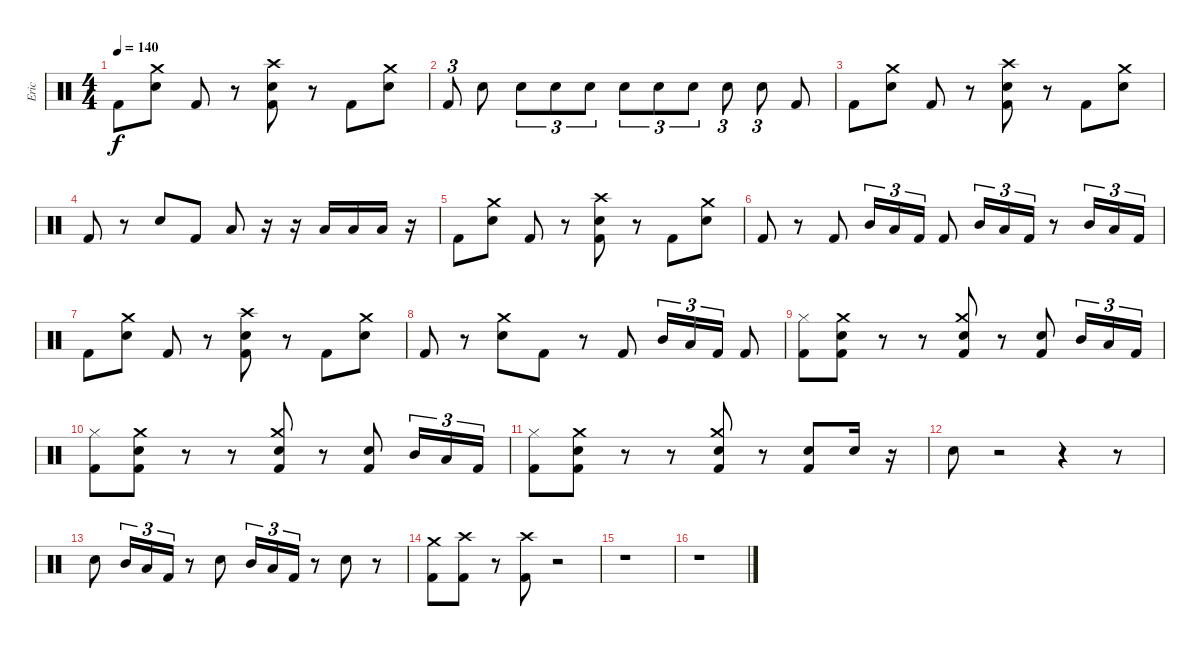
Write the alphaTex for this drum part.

\track ("Eric" "Eric") {instrument percussion}
\staff {score}
\articulation defaults
\ts (4 4)
\tempo 140
\clef neutral
\ks c "Kick (hit) 2".8{dy f}
("Crash medium (hit)" "Electric Snare (hit)").8 "Kick (hit) 2".8 r.8 ("Crash high (hit)" "Electric Snare (hit)" "Kick (hit) 2").8 r.8 "Kick (hit) 2".8 ("Crash medium (hit)" "Electric Snare (hit)").8 |
"Kick (hit) 2".8{tu (3 2)} "Electric Snare (hit)".8 "Electric Snare (hit)".8{tu (3 2)} "Electric Snare (hit)".8{tu (3 2)} "Electric Snare (hit)".8{tu (3 2)} "Electric Snare (hit)".8{tu (3 2)} "Electric Snare (hit)".8{tu (3 2)} "Electric Snare (hit)".8{tu (3 2)} "Electric Snare (hit)".8{tu (3 2)} "Electric Snare (hit)".8{tu (3 2)} "Kick (hit) 2".8 |
"Kick (hit) 2".8 ("Crash medium (hit)" "Electric Snare (hit)").8 "Kick (hit) 2".8 r.8 ("Crash high (hit)" "Electric Snare (hit)" "Kick (hit) 2").8 r.8 "Kick (hit) 2".8 ("Crash medium (hit)" "Electric Snare (hit)").8 |
"Kick (hit) 2".8 r.8 "Electric Snare (hit)".8 "Kick (hit) 2".8 "Low Tom (hit)".8 r.16 r.16 "Low Tom (hit)".16 "Low Tom (hit)".16 "Low Tom (hit)".16 r.16 |
"Kick (hit) 2".8 ("Crash medium (hit)" "Electric Snare (hit)").8 "Kick (hit) 2".8 r.8 ("Crash high (hit)" "Electric Snare (hit)" "Kick (hit) 2").8 r.8 "Kick (hit) 2".8 ("Crash medium (hit)" "Electric Snare (hit)").8 |
"Kick (hit) 2".8 r.8 "Kick (hit) 2".8 "Mid Tom (hit)".16{tu (3 2)} "Low Tom (hit)".16{tu (3 2)} "Kick (hit) 2".16{tu (3 2)} "Kick (hit) 2".8 "Mid Tom (hit)".16{tu (3 2)} "Low Tom (hit)".16{tu (3 2)} "Kick (hit) 2".16{tu (3 2)} r.8 "Mid Tom (hit)".16{tu (3 2)} "Low Tom (hit)".16{tu (3 2)} "Kick (hit) 2".16{tu (3 2)} |
"Kick (hit) 2".8 ("Crash medium (hit)" "Electric Snare (hit)").8 "Kick (hit) 2".8 r.8 ("Crash high (hit)" "Electric Snare (hit)" "Kick (hit) 2").8 r.8 "Kick (hit) 2".8 ("Crash medium (hit)" "Electric Snare (hit)").8 |
"Kick (hit) 2".8 r.8 ("Crash medium (hit)" "Electric Snare (hit)").8 "Kick (hit) 2".8 r.8 "Kick (hit) 2".8 "Mid Tom (hit)".16{tu (3 2)} "Low Tom (hit)".16{tu (3 2)} "Kick (hit) 2".16{tu (3 2)} "Kick (hit) 2".8 |
("Hi-Hat (closed)" "Kick (hit) 2").8 ("Crash medium (hit)" "Electric Snare (hit)" "Kick (hit) 2").8 r.8 r.8 ("Crash medium (hit)" "Electric Snare (hit)" "Kick (hit) 2").8 r.8 ("Electric Snare (hit)" "Kick (hit) 2").8 "Mid Tom (hit)".16{tu (3 2)} "Low Tom (hit)".16{tu (3 2)} "Kick (hit) 2".16{tu (3 2)} |
("Hi-Hat (closed)" "Kick (hit) 2").8 ("Crash medium (hit)" "Electric Snare (hit)" "Kick (hit) 2").8 r.8 r.8 ("Crash medium (hit)" "Electric Snare (hit)" "Kick (hit) 2").8 r.8 ("Electric Snare (hit)" "Kick (hit) 2").8 "Mid Tom (hit)".16{tu (3 2)} "Low Tom (hit)".16{tu (3 2)} "Kick (hit) 2".16{tu (3 2)} |
("Hi-Hat (closed)" "Kick (hit) 2").8 ("Crash medium (hit)" "Electric Snare (hit)" "Kick (hit) 2").8 r.8 r.8 ("Crash medium (hit)" "Electric Snare (hit)" "Kick (hit) 2").8 r.8 ("Electric Snare (hit)" "Kick (hit) 2").8 "Electric Snare (hit)".16 r.16 |
"Electric Snare (hit)".8 r.2 r.4 r.8 |
"Electric Snare (hit)".8 "Mid Tom (hit)".16{tu (3 2)} "Low Tom (hit)".16{tu (3 2)} "Kick (hit) 2".16{tu (3 2)} r.8 "Electric Snare (hit)".8 "Mid Tom (hit)".16{tu (3 2)} "Low Tom (hit)".16{tu (3 2)} "Kick (hit) 2".16{tu (3 2)} r.8 "Electric Snare (hit)".8 r.8 |
("Crash medium (hit)" "Kick (hit) 2").8 ("Crash high (hit)" "Kick (hit) 2").8 r.8 ("Crash high (hit)" "Kick (hit) 2").8 r.2 |
r.1 |
r.1
